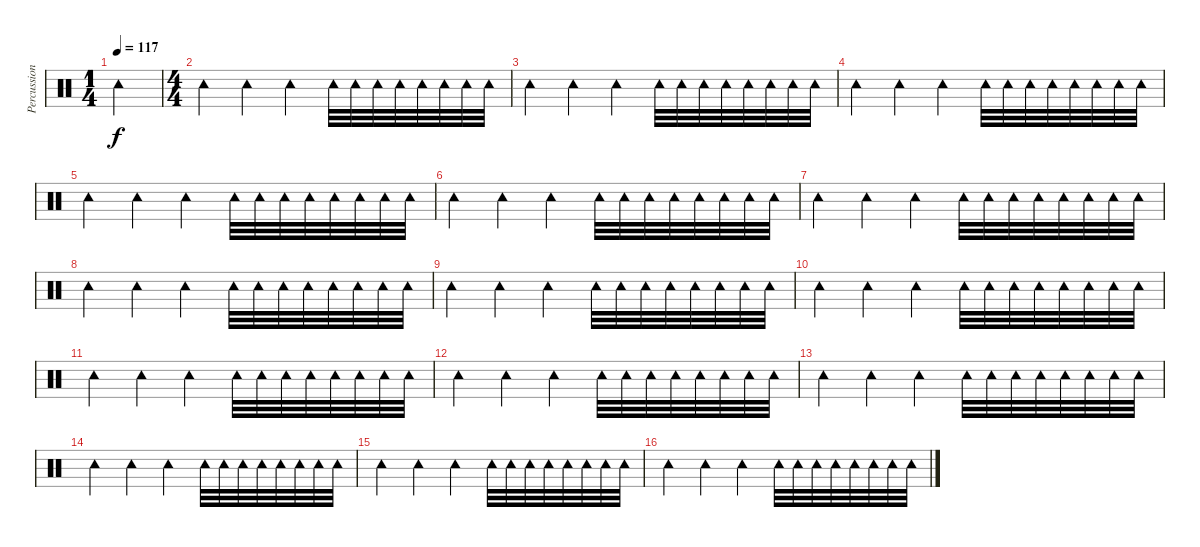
\track ("Percussion" "Percussion") {instrument percussion}
\staff {score}
\articulation defaults
\ts (1 4)
\tempo 117
\clef neutral
\ks c "Tambourine (hit)".4{dy f}
|
\ts (4 4)
"Tambourine (hit)".4 "Tambourine (hit)".4 "Tambourine (hit)".4 "Tambourine (hit)".32 "Tambourine (hit)".32 "Tambourine (hit)".32 "Tambourine (hit)".32 "Tambourine (hit)".32 "Tambourine (hit)".32 "Tambourine (hit)".32 "Tambourine (hit)".32 |
"Tambourine (hit)".4 "Tambourine (hit)".4 "Tambourine (hit)".4 "Tambourine (hit)".32 "Tambourine (hit)".32 "Tambourine (hit)".32 "Tambourine (hit)".32 "Tambourine (hit)".32 "Tambourine (hit)".32 "Tambourine (hit)".32 "Tambourine (hit)".32 |
"Tambourine (hit)".4 "Tambourine (hit)".4 "Tambourine (hit)".4 "Tambourine (hit)".32 "Tambourine (hit)".32 "Tambourine (hit)".32 "Tambourine (hit)".32 "Tambourine (hit)".32 "Tambourine (hit)".32 "Tambourine (hit)".32 "Tambourine (hit)".32 |
"Tambourine (hit)".4 "Tambourine (hit)".4 "Tambourine (hit)".4 "Tambourine (hit)".32 "Tambourine (hit)".32 "Tambourine (hit)".32 "Tambourine (hit)".32 "Tambourine (hit)".32 "Tambourine (hit)".32 "Tambourine (hit)".32 "Tambourine (hit)".32 |
"Tambourine (hit)".4 "Tambourine (hit)".4 "Tambourine (hit)".4 "Tambourine (hit)".32 "Tambourine (hit)".32 "Tambourine (hit)".32 "Tambourine (hit)".32 "Tambourine (hit)".32 "Tambourine (hit)".32 "Tambourine (hit)".32 "Tambourine (hit)".32 |
"Tambourine (hit)".4 "Tambourine (hit)".4 "Tambourine (hit)".4 "Tambourine (hit)".32 "Tambourine (hit)".32 "Tambourine (hit)".32 "Tambourine (hit)".32 "Tambourine (hit)".32 "Tambourine (hit)".32 "Tambourine (hit)".32 "Tambourine (hit)".32 |
"Tambourine (hit)".4 "Tambourine (hit)".4 "Tambourine (hit)".4 "Tambourine (hit)".32 "Tambourine (hit)".32 "Tambourine (hit)".32 "Tambourine (hit)".32 "Tambourine (hit)".32 "Tambourine (hit)".32 "Tambourine (hit)".32 "Tambourine (hit)".32 |
"Tambourine (hit)".4 "Tambourine (hit)".4 "Tambourine (hit)".4 "Tambourine (hit)".32 "Tambourine (hit)".32 "Tambourine (hit)".32 "Tambourine (hit)".32 "Tambourine (hit)".32 "Tambourine (hit)".32 "Tambourine (hit)".32 "Tambourine (hit)".32 |
"Tambourine (hit)".4 "Tambourine (hit)".4 "Tambourine (hit)".4 "Tambourine (hit)".32 "Tambourine (hit)".32 "Tambourine (hit)".32 "Tambourine (hit)".32 "Tambourine (hit)".32 "Tambourine (hit)".32 "Tambourine (hit)".32 "Tambourine (hit)".32 |
"Tambourine (hit)".4 "Tambourine (hit)".4 "Tambourine (hit)".4 "Tambourine (hit)".32 "Tambourine (hit)".32 "Tambourine (hit)".32 "Tambourine (hit)".32 "Tambourine (hit)".32 "Tambourine (hit)".32 "Tambourine (hit)".32 "Tambourine (hit)".32 |
"Tambourine (hit)".4 "Tambourine (hit)".4 "Tambourine (hit)".4 "Tambourine (hit)".32 "Tambourine (hit)".32 "Tambourine (hit)".32 "Tambourine (hit)".32 "Tambourine (hit)".32 "Tambourine (hit)".32 "Tambourine (hit)".32 "Tambourine (hit)".32 |
"Tambourine (hit)".4 "Tambourine (hit)".4 "Tambourine (hit)".4 "Tambourine (hit)".32 "Tambourine (hit)".32 "Tambourine (hit)".32 "Tambourine (hit)".32 "Tambourine (hit)".32 "Tambourine (hit)".32 "Tambourine (hit)".32 "Tambourine (hit)".32 |
"Tambourine (hit)".4 "Tambourine (hit)".4 "Tambourine (hit)".4 "Tambourine (hit)".32 "Tambourine (hit)".32 "Tambourine (hit)".32 "Tambourine (hit)".32 "Tambourine (hit)".32 "Tambourine (hit)".32 "Tambourine (hit)".32 "Tambourine (hit)".32 |
"Tambourine (hit)".4 "Tambourine (hit)".4 "Tambourine (hit)".4 "Tambourine (hit)".32 "Tambourine (hit)".32 "Tambourine (hit)".32 "Tambourine (hit)".32 "Tambourine (hit)".32 "Tambourine (hit)".32 "Tambourine (hit)".32 "Tambourine (hit)".32 |
"Tambourine (hit)".4 "Tambourine (hit)".4 "Tambourine (hit)".4 "Tambourine (hit)".32 "Tambourine (hit)".32 "Tambourine (hit)".32 "Tambourine (hit)".32 "Tambourine (hit)".32 "Tambourine (hit)".32 "Tambourine (hit)".32 "Tambourine (hit)".32
